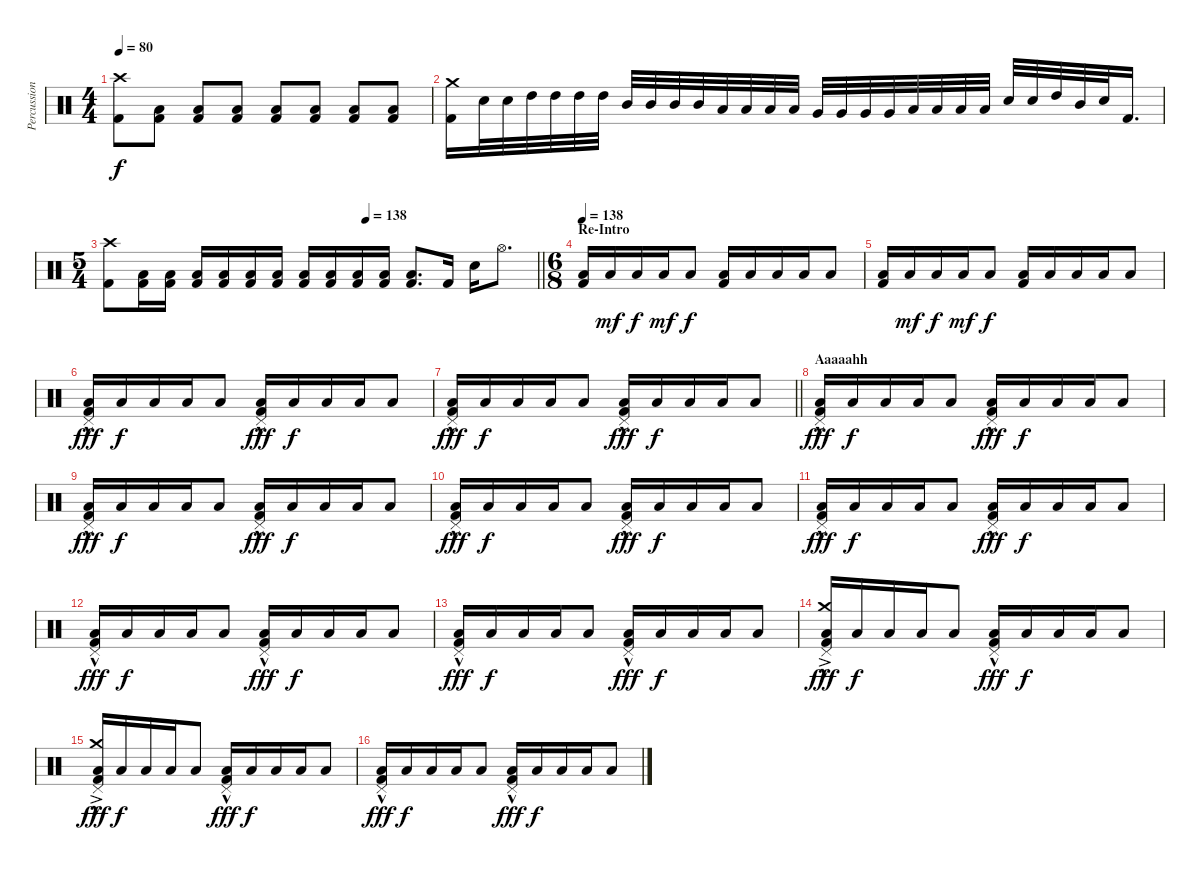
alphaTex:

\track ("Percussion" "Percussion") {instrument percussion}
\staff {score}
\articulation defaults
\ts (4 4)
\tempo 80
\clef neutral
\ks c
("Crash high (hit)" "Kick (hit) 2").8{dy f} ("Low Floor Tom (hit)" "Kick (hit) 2").8 ("Low Floor Tom (hit)" "Kick (hit) 2").8 ("Low Floor Tom (hit)" "Kick (hit) 2").8 ("Low Floor Tom (hit)" "Kick (hit) 2").8 ("Low Floor Tom (hit)" "Kick (hit) 2").8 ("Low Floor Tom (hit)" "Kick (hit) 2").8 ("Low Floor Tom (hit)" "Kick (hit) 2").8 |
("Crash medium (hit)" "Kick (hit) 2").16 "Electric Snare (hit)".32 "Electric Snare (hit)".32 "High Tom (hit)".32 "High Tom (hit)".32 "High Tom (hit)".32 "High Tom (hit)".32 "Mid Tom (hit)".32 "Mid Tom (hit)".32 "Mid Tom (hit)".32 "Mid Tom (hit)".32 "Low Tom (hit)".32 "Low Tom (hit)".32 "Low Tom (hit)".32 "Low Tom (hit)".32 "Very Low Tom (hit)".32 "Very Low Tom (hit)".32 "Very Low Tom (hit)".32 "Very Low Tom (hit)".32 "Low Floor Tom (hit)".32 "Low Floor Tom (hit)".32 "Low Floor Tom (hit)".32 "Low Floor Tom (hit)".32 "Electric Snare (hit)".32 "Electric Snare (hit)".32 "High Tom (hit)".32 "Mid Tom (hit)".32 "Electric Snare (hit)".32 "Kick (hit) 2".16{d} |
\ts (5 4)
\tempo (138 0.6)
\barLineRight lightlight
("Crash high (hit)" "Kick (hit) 2").8 ("Low Floor Tom (hit)" "Kick (hit) 2").16 ("Low Floor Tom (hit)" "Kick (hit) 2").16 ("Low Floor Tom (hit)" "Kick (hit) 2").16 ("Low Floor Tom (hit)" "Kick (hit) 2").16 ("Low Floor Tom (hit)" "Kick (hit) 2").16 ("Low Floor Tom (hit)" "Kick (hit) 2").16 ("Low Floor Tom (hit)" "Kick (hit) 2").16 ("Low Floor Tom (hit)" "Kick (hit) 2").16 ("Low Floor Tom (hit)" "Kick (hit) 2").16 ("Low Floor Tom (hit)" "Kick (hit) 2").16 ("Low Floor Tom (hit)" "Kick (hit) 2").8{d} "Kick (hit) 2".16 "Electric Snare (hit)".16 "Hi-Hat (open)".8{d} |
\ts (6 8)
\section ("" "Re-Intro")
\tempo 138
("Low Floor Tom (hit)" "Kick (hit) 2").16 "Low Floor Tom (hit)".16{dy mf} "Low Floor Tom (hit)".16{dy f} "Low Floor Tom (hit)".16{dy mf} "Low Floor Tom (hit)".8{dy f} ("Low Floor Tom (hit)" "Kick (hit) 2").16 "Low Floor Tom (hit)".16 "Low Floor Tom (hit)".16 "Low Floor Tom (hit)".16 "Low Floor Tom (hit)".8 |
("Low Floor Tom (hit)" "Kick (hit) 2").16 "Low Floor Tom (hit)".16{dy mf} "Low Floor Tom (hit)".16{dy f} "Low Floor Tom (hit)".16{dy mf} "Low Floor Tom (hit)".8{dy f} ("Low Floor Tom (hit)" "Kick (hit) 2").16 "Low Floor Tom (hit)".16 "Low Floor Tom (hit)".16 "Low Floor Tom (hit)".16 "Low Floor Tom (hit)".8 |
("Pedal Hi-Hat (hit)"{hac} "Low Floor Tom (hit)" "Kick (hit) 2").16{dy fff} "Low Floor Tom (hit)".16{dy f} "Low Floor Tom (hit)".16 "Low Floor Tom (hit)".16 "Low Floor Tom (hit)".8 ("Pedal Hi-Hat (hit)"{hac} "Low Floor Tom (hit)" "Kick (hit) 2").16{dy fff} "Low Floor Tom (hit)".16{dy f} "Low Floor Tom (hit)".16 "Low Floor Tom (hit)".16 "Low Floor Tom (hit)".8 |
\barLineRight lightlight
("Pedal Hi-Hat (hit)"{hac} "Low Floor Tom (hit)" "Kick (hit) 2").16{dy fff} "Low Floor Tom (hit)".16{dy f} "Low Floor Tom (hit)".16 "Low Floor Tom (hit)".16 "Low Floor Tom (hit)".8 ("Pedal Hi-Hat (hit)"{hac} "Low Floor Tom (hit)" "Kick (hit) 2").16{dy fff} "Low Floor Tom (hit)".16{dy f} "Low Floor Tom (hit)".16 "Low Floor Tom (hit)".16 "Low Floor Tom (hit)".8 |
\section ("" "Aaaaahh")
("Pedal Hi-Hat (hit)"{hac} "Low Floor Tom (hit)" "Kick (hit) 2").16{dy fff} "Low Floor Tom (hit)".16{dy f} "Low Floor Tom (hit)".16 "Low Floor Tom (hit)".16 "Low Floor Tom (hit)".8 ("Pedal Hi-Hat (hit)"{hac} "Low Floor Tom (hit)" "Kick (hit) 2").16{dy fff} "Low Floor Tom (hit)".16{dy f} "Low Floor Tom (hit)".16 "Low Floor Tom (hit)".16 "Low Floor Tom (hit)".8 |
("Pedal Hi-Hat (hit)"{hac} "Low Floor Tom (hit)" "Kick (hit) 2").16{dy fff} "Low Floor Tom (hit)".16{dy f} "Low Floor Tom (hit)".16 "Low Floor Tom (hit)".16 "Low Floor Tom (hit)".8 ("Pedal Hi-Hat (hit)"{hac} "Low Floor Tom (hit)" "Kick (hit) 2").16{dy fff} "Low Floor Tom (hit)".16{dy f} "Low Floor Tom (hit)".16 "Low Floor Tom (hit)".16 "Low Floor Tom (hit)".8 |
("Pedal Hi-Hat (hit)"{hac} "Low Floor Tom (hit)" "Kick (hit) 2").16{dy fff} "Low Floor Tom (hit)".16{dy f} "Low Floor Tom (hit)".16 "Low Floor Tom (hit)".16 "Low Floor Tom (hit)".8 ("Pedal Hi-Hat (hit)"{hac} "Low Floor Tom (hit)" "Kick (hit) 2").16{dy fff} "Low Floor Tom (hit)".16{dy f} "Low Floor Tom (hit)".16 "Low Floor Tom (hit)".16 "Low Floor Tom (hit)".8 |
("Pedal Hi-Hat (hit)"{hac} "Low Floor Tom (hit)" "Kick (hit) 2").16{dy fff} "Low Floor Tom (hit)".16{dy f} "Low Floor Tom (hit)".16 "Low Floor Tom (hit)".16 "Low Floor Tom (hit)".8 ("Pedal Hi-Hat (hit)"{hac} "Low Floor Tom (hit)" "Kick (hit) 2").16{dy fff} "Low Floor Tom (hit)".16{dy f} "Low Floor Tom (hit)".16 "Low Floor Tom (hit)".16 "Low Floor Tom (hit)".8 |
("Pedal Hi-Hat (hit)"{hac} "Low Floor Tom (hit)" "Kick (hit) 2").16{dy fff} "Low Floor Tom (hit)".16{dy f} "Low Floor Tom (hit)".16 "Low Floor Tom (hit)".16 "Low Floor Tom (hit)".8 ("Pedal Hi-Hat (hit)"{hac} "Low Floor Tom (hit)" "Kick (hit) 2").16{dy fff} "Low Floor Tom (hit)".16{dy f} "Low Floor Tom (hit)".16 "Low Floor Tom (hit)".16 "Low Floor Tom (hit)".8 |
("Pedal Hi-Hat (hit)"{hac} "Low Floor Tom (hit)" "Kick (hit) 2").16{dy fff} "Low Floor Tom (hit)".16{dy f} "Low Floor Tom (hit)".16 "Low Floor Tom (hit)".16 "Low Floor Tom (hit)".8 ("Pedal Hi-Hat (hit)"{hac} "Low Floor Tom (hit)" "Kick (hit) 2").16{dy fff} "Low Floor Tom (hit)".16{dy f} "Low Floor Tom (hit)".16 "Low Floor Tom (hit)".16 "Low Floor Tom (hit)".8 |
("Crash medium (hit)"{ac} "Pedal Hi-Hat (hit)"{hac} "Low Floor Tom (hit)" "Kick (hit) 2").16{dy fff} "Low Floor Tom (hit)".16{dy f} "Low Floor Tom (hit)".16 "Low Floor Tom (hit)".16 "Low Floor Tom (hit)".8 ("Pedal Hi-Hat (hit)"{hac} "Low Floor Tom (hit)" "Kick (hit) 2").16{dy fff} "Low Floor Tom (hit)".16{dy f} "Low Floor Tom (hit)".16 "Low Floor Tom (hit)".16 "Low Floor Tom (hit)".8 |
("Crash medium (hit)"{ac} "Pedal Hi-Hat (hit)"{hac} "Low Floor Tom (hit)" "Kick (hit) 2").16{dy fff} "Low Floor Tom (hit)".16{dy f} "Low Floor Tom (hit)".16 "Low Floor Tom (hit)".16 "Low Floor Tom (hit)".8 ("Pedal Hi-Hat (hit)"{hac} "Low Floor Tom (hit)" "Kick (hit) 2").16{dy fff} "Low Floor Tom (hit)".16{dy f} "Low Floor Tom (hit)".16 "Low Floor Tom (hit)".16 "Low Floor Tom (hit)".8 |
("Pedal Hi-Hat (hit)"{hac} "Low Floor Tom (hit)" "Kick (hit) 2").16{dy fff} "Low Floor Tom (hit)".16{dy f} "Low Floor Tom (hit)".16 "Low Floor Tom (hit)".16 "Low Floor Tom (hit)".8 ("Pedal Hi-Hat (hit)"{hac} "Low Floor Tom (hit)" "Kick (hit) 2").16{dy fff} "Low Floor Tom (hit)".16{dy f} "Low Floor Tom (hit)".16 "Low Floor Tom (hit)".16 "Low Floor Tom (hit)".8
